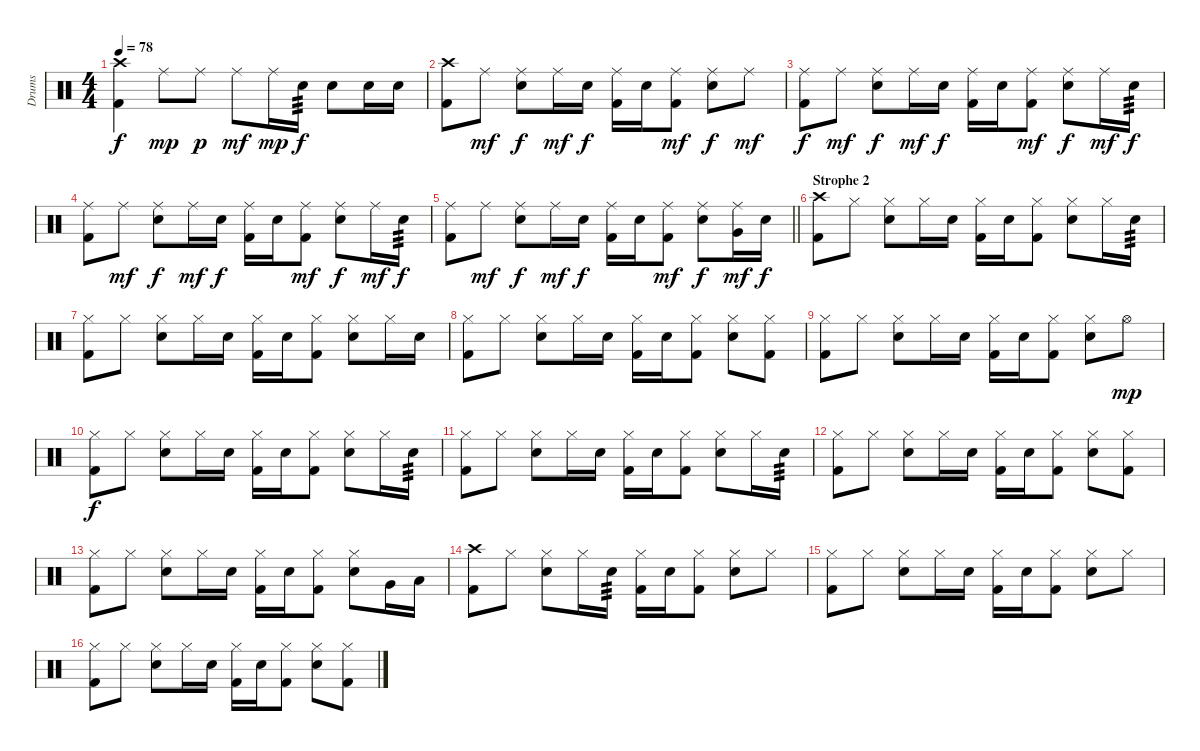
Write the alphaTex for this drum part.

\track ("Drums" "Drums") {instrument percussion}
\staff {score}
\articulation defaults
\ts (4 4)
\tempo 78
\clef neutral
\ks c
("Crash high (hit)" "Kick (hit) 2").4{dy f} "Ride (middle)".8{dy mp} "Ride (middle)".8{dy p} "Ride (middle)".8{dy mf} "Ride (middle)".16{dy mp} "Snare (hit) 2".16{tp 3 dy f} "Snare (hit) 2".8 "Snare (hit) 2".16 "Snare (hit) 2".16 |
("Crash high (hit)" "Kick (hit) 2").8 "Ride (middle)".8{dy mf} ("Ride (middle)" "Snare (hit) 2").8{dy f} "Ride (middle)".16{dy mf} "Snare (hit) 2".16{dy f} ("Ride (middle)" "Kick (hit) 2").16 "Snare (hit) 2".16 ("Ride (middle)" "Kick (hit) 2").8{dy mf} ("Ride (middle)" "Snare (hit) 2").8{dy f} "Ride (middle)".8{dy mf} |
("Ride (middle)" "Kick (hit) 2").8{dy f} "Ride (middle)".8{dy mf} ("Ride (middle)" "Snare (hit) 2").8{dy f} "Ride (middle)".16{dy mf} "Snare (hit) 2".16{dy f} ("Ride (middle)" "Kick (hit) 2").16 "Snare (hit) 2".16 ("Ride (middle)" "Kick (hit) 2").8{dy mf} ("Ride (middle)" "Snare (hit) 2").8{dy f} "Ride (middle)".16{dy mf} "Snare (hit) 2".16{tp 3 dy f} |
("Ride (middle)" "Kick (hit) 2").8 "Ride (middle)".8{dy mf} ("Ride (middle)" "Snare (hit) 2").8{dy f} "Ride (middle)".16{dy mf} "Snare (hit) 2".16{dy f} ("Ride (middle)" "Kick (hit) 2").16 "Snare (hit) 2".16 ("Ride (middle)" "Kick (hit) 2").8{dy mf} ("Ride (middle)" "Snare (hit) 2").8{dy f} "Ride (middle)".16{dy mf} "Snare (hit) 2".16{tp 3 dy f} |
\barLineRight lightlight
("Ride (middle)" "Kick (hit) 2").8 "Ride (middle)".8{dy mf} ("Ride (middle)" "Snare (hit) 2").8{dy f} "Ride (middle)".16{dy mf} "Snare (hit) 2".16{dy f} ("Ride (middle)" "Kick (hit) 2").16 "Snare (hit) 2".16 ("Ride (middle)" "Kick (hit) 2").8{dy mf} ("Ride (middle)" "Snare (hit) 2").8{dy f} ("Ride (middle)" "Very Low Tom (hit)").16{dy mf} "Snare (hit) 2".16{dy f} |
\section ("" "Strophe 2")
("Crash high (hit)" "Kick (hit) 2").8 "Hi-Hat (closed)".8 ("Hi-Hat (closed)" "Snare (hit) 2").8 "Hi-Hat (closed)".16 "Snare (hit) 2".16 ("Hi-Hat (closed)" "Kick (hit) 2").16 "Snare (hit) 2".16 ("Hi-Hat (closed)" "Kick (hit) 2").8 ("Hi-Hat (closed)" "Snare (hit) 2").8 "Hi-Hat (closed)".16 "Snare (hit) 2".16{tp 3} |
("Hi-Hat (closed)" "Kick (hit) 2").8 "Hi-Hat (closed)".8 ("Hi-Hat (closed)" "Snare (hit) 2").8 "Hi-Hat (closed)".16 "Snare (hit) 2".16 ("Hi-Hat (closed)" "Kick (hit) 2").16 "Snare (hit) 2".16 ("Hi-Hat (closed)" "Kick (hit) 2").8 ("Hi-Hat (closed)" "Snare (hit) 2").8 "Hi-Hat (closed)".16 "Snare (hit) 2".16 |
("Hi-Hat (closed)" "Kick (hit) 2").8 "Hi-Hat (closed)".8 ("Hi-Hat (closed)" "Snare (hit) 2").8 "Hi-Hat (closed)".16 "Snare (hit) 2".16 ("Hi-Hat (closed)" "Kick (hit) 2").16 "Snare (hit) 2".16 ("Hi-Hat (closed)" "Kick (hit) 2").8 ("Hi-Hat (closed)" "Snare (hit) 2").8 ("Hi-Hat (closed)" "Kick (hit) 2").8 |
("Hi-Hat (closed)" "Kick (hit) 2").8 "Hi-Hat (closed)".8 ("Hi-Hat (closed)" "Snare (hit) 2").8 "Hi-Hat (closed)".16 "Snare (hit) 2".16 ("Hi-Hat (closed)" "Kick (hit) 2").16 "Snare (hit) 2".16 ("Hi-Hat (closed)" "Kick (hit) 2").8 ("Hi-Hat (closed)" "Snare (hit) 2").8 "Hi-Hat (open)".8{dy mp} |
("Hi-Hat (closed)" "Kick (hit) 2").8{dy f} "Hi-Hat (closed)".8 ("Hi-Hat (closed)" "Snare (hit) 2").8 "Hi-Hat (closed)".16 "Snare (hit) 2".16 ("Hi-Hat (closed)" "Kick (hit) 2").16 "Snare (hit) 2".16 ("Hi-Hat (closed)" "Kick (hit) 2").8 ("Hi-Hat (closed)" "Snare (hit) 2").8 "Hi-Hat (closed)".16 "Snare (hit) 2".16{tp 3} |
("Hi-Hat (closed)" "Kick (hit) 2").8 "Hi-Hat (closed)".8 ("Hi-Hat (closed)" "Snare (hit) 2").8 "Hi-Hat (closed)".16 "Snare (hit) 2".16 ("Hi-Hat (closed)" "Kick (hit) 2").16 "Snare (hit) 2".16 ("Hi-Hat (closed)" "Kick (hit) 2").8 ("Hi-Hat (closed)" "Snare (hit) 2").8 "Hi-Hat (closed)".16 "Snare (hit) 2".16{tp 3} |
("Hi-Hat (closed)" "Kick (hit) 2").8 "Hi-Hat (closed)".8 ("Hi-Hat (closed)" "Snare (hit) 2").8 "Hi-Hat (closed)".16 "Snare (hit) 2".16 ("Hi-Hat (closed)" "Kick (hit) 2").16 "Snare (hit) 2".16 ("Hi-Hat (closed)" "Kick (hit) 2").8 ("Hi-Hat (closed)" "Snare (hit) 2").8 ("Hi-Hat (closed)" "Kick (hit) 2").8 |
("Hi-Hat (closed)" "Kick (hit) 2").8 "Hi-Hat (closed)".8 ("Hi-Hat (closed)" "Snare (hit) 2").8 "Hi-Hat (closed)".16 "Snare (hit) 2".16 ("Hi-Hat (closed)" "Kick (hit) 2").16 "Snare (hit) 2".16 ("Hi-Hat (closed)" "Kick (hit) 2").8 ("Hi-Hat (closed)" "Snare (hit) 2").8 "Very Low Tom (hit)".16 "Low Tom (hit)".16 |
("Crash high (hit)" "Kick (hit) 2").8 "Hi-Hat (closed)".8 ("Hi-Hat (closed)" "Snare (hit) 2").8 "Hi-Hat (closed)".16 "Snare (hit) 2".16{tp 3} ("Hi-Hat (closed)" "Kick (hit) 2").16 "Snare (hit) 2".16 ("Hi-Hat (closed)" "Kick (hit) 2").8 ("Hi-Hat (closed)" "Snare (hit) 2").8 "Hi-Hat (closed)".8 |
("Hi-Hat (closed)" "Kick (hit) 2").8 "Hi-Hat (closed)".8 ("Hi-Hat (closed)" "Snare (hit) 2").8 "Hi-Hat (closed)".16 "Snare (hit) 2".16 ("Hi-Hat (closed)" "Kick (hit) 2").16 "Snare (hit) 2".16 ("Hi-Hat (closed)" "Kick (hit) 2").8 ("Hi-Hat (closed)" "Snare (hit) 2").8 "Hi-Hat (closed)".8 |
("Hi-Hat (closed)" "Kick (hit) 2").8 "Hi-Hat (closed)".8 ("Hi-Hat (closed)" "Snare (hit) 2").8 "Hi-Hat (closed)".16 "Snare (hit) 2".16 ("Hi-Hat (closed)" "Kick (hit) 2").16 "Snare (hit) 2".16 ("Hi-Hat (closed)" "Kick (hit) 2").8 ("Hi-Hat (closed)" "Snare (hit) 2").8 ("Hi-Hat (closed)" "Kick (hit) 2").8
